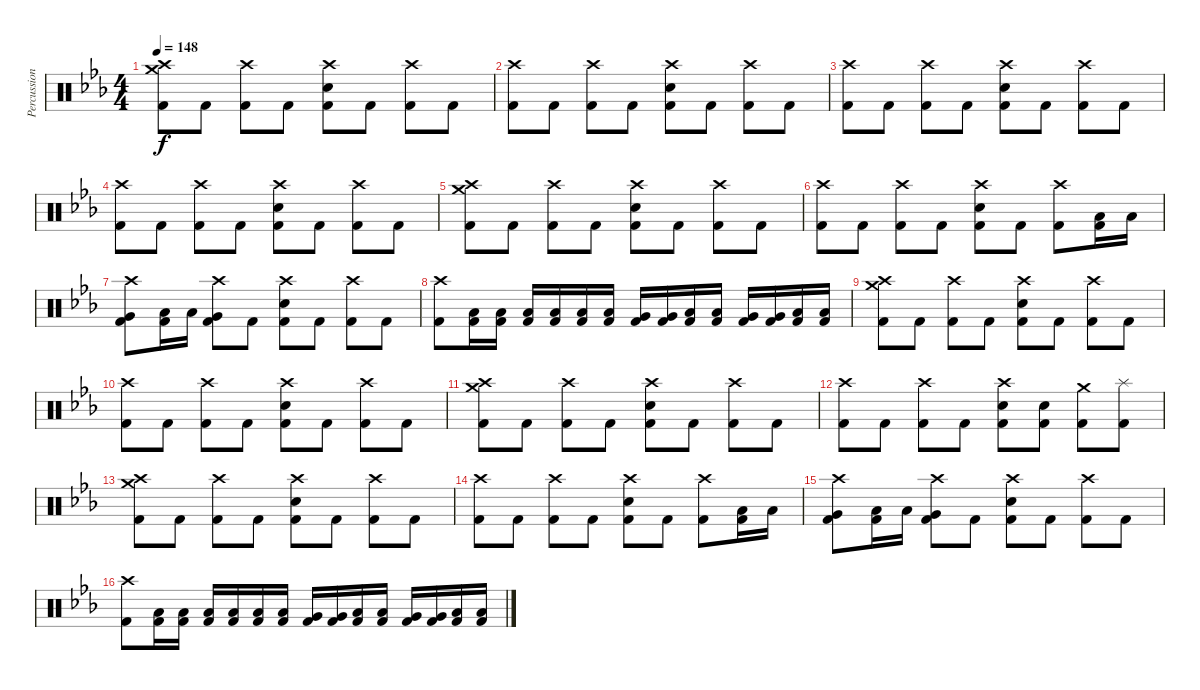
\track ("Percussion" "Percussion") {instrument percussion}
\staff {score}
\articulation defaults
\ts (4 4)
\tempo 148
\clef neutral
\ks cminor
("Crash medium (hit)" "Crash high (hit)" "Kick (hit) 2").8{dy f} "Kick (hit) 2".8 ("Crash high (hit)" "Kick (hit) 2").8 "Kick (hit) 2".8 ("Crash high (hit)" "Electric Snare (hit)" "Kick (hit) 2").8 "Kick (hit) 2".8 ("Crash high (hit)" "Kick (hit) 2").8 "Kick (hit) 2".8 |
("Crash high (hit)" "Kick (hit) 2").8 "Kick (hit) 2".8 ("Crash high (hit)" "Kick (hit) 2").8 "Kick (hit) 2".8 ("Crash high (hit)" "Electric Snare (hit)" "Kick (hit) 2").8 "Kick (hit) 2".8 ("Crash high (hit)" "Kick (hit) 2").8 "Kick (hit) 2".8 |
("Crash high (hit)" "Kick (hit) 2").8 "Kick (hit) 2".8 ("Crash high (hit)" "Kick (hit) 2").8 "Kick (hit) 2".8 ("Crash high (hit)" "Electric Snare (hit)" "Kick (hit) 2").8 "Kick (hit) 2".8 ("Crash high (hit)" "Kick (hit) 2").8 "Kick (hit) 2".8 |
("Crash high (hit)" "Kick (hit) 2").8 "Kick (hit) 2".8 ("Crash high (hit)" "Kick (hit) 2").8 "Kick (hit) 2".8 ("Crash high (hit)" "Electric Snare (hit)" "Kick (hit) 2").8 "Kick (hit) 2".8 ("Crash high (hit)" "Kick (hit) 2").8 "Kick (hit) 2".8 |
("Crash medium (hit)" "Crash high (hit)" "Kick (hit) 2").8 "Kick (hit) 2".8 ("Crash high (hit)" "Kick (hit) 2").8 "Kick (hit) 2".8 ("Crash high (hit)" "Electric Snare (hit)" "Kick (hit) 2").8 "Kick (hit) 2".8 ("Crash high (hit)" "Kick (hit) 2").8 "Kick (hit) 2".8 |
("Crash high (hit)" "Kick (hit) 2").8 "Kick (hit) 2".8 ("Crash high (hit)" "Kick (hit) 2").8 "Kick (hit) 2".8 ("Crash high (hit)" "Electric Snare (hit)" "Kick (hit) 2").8 "Kick (hit) 2".8 ("Crash high (hit)" "Kick (hit) 2").8 ("Low Tom (hit)" "Kick (hit) 2").16 "Low Tom (hit)".16 |
("Crash high (hit)" "Very Low Tom (hit)" "Kick (hit) 2").8 ("Low Tom (hit)" "Kick (hit) 2").16 "Low Tom (hit)".16 ("Crash high (hit)" "Very Low Tom (hit)" "Kick (hit) 2").8 "Kick (hit) 2".8 ("Crash high (hit)" "Electric Snare (hit)" "Kick (hit) 2").8 "Kick (hit) 2".8 ("Crash high (hit)" "Kick (hit) 2").8 "Kick (hit) 2".8 |
("Crash high (hit)" "Kick (hit) 2").8 ("Low Tom (hit)" "Kick (hit) 2").16 ("Low Tom (hit)" "Kick (hit) 2").16 ("Low Tom (hit)" "Kick (hit) 2").16 ("Low Tom (hit)" "Kick (hit) 2").16 ("Low Tom (hit)" "Kick (hit) 2").16 ("Low Tom (hit)" "Kick (hit) 2").16 ("Very Low Tom (hit)" "Kick (hit) 2").16 ("Very Low Tom (hit)" "Kick (hit) 2").16 ("Low Tom (hit)" "Kick (hit) 2").16 ("Low Tom (hit)" "Kick (hit) 2").16 ("Very Low Tom (hit)" "Kick (hit) 2").16 ("Very Low Tom (hit)" "Kick (hit) 2").16 ("Low Floor Tom (hit)" "Kick (hit) 2").16 ("Low Floor Tom (hit)" "Kick (hit) 2").16 |
("Crash medium (hit)" "Crash high (hit)" "Kick (hit) 2").8 "Kick (hit) 2".8 ("Crash high (hit)" "Kick (hit) 2").8 "Kick (hit) 2".8 ("Crash high (hit)" "Electric Snare (hit)" "Kick (hit) 2").8 "Kick (hit) 2".8 ("Crash high (hit)" "Kick (hit) 2").8 "Kick (hit) 2".8 |
("Crash high (hit)" "Kick (hit) 2").8 "Kick (hit) 2".8 ("Crash high (hit)" "Kick (hit) 2").8 "Kick (hit) 2".8 ("Crash high (hit)" "Electric Snare (hit)" "Kick (hit) 2").8 "Kick (hit) 2".8 ("Crash high (hit)" "Kick (hit) 2").8 "Kick (hit) 2".8 |
("Crash medium (hit)" "Crash high (hit)" "Kick (hit) 2").8 "Kick (hit) 2".8 ("Crash high (hit)" "Kick (hit) 2").8 "Kick (hit) 2".8 ("Crash high (hit)" "Electric Snare (hit)" "Kick (hit) 2").8 "Kick (hit) 2".8 ("Crash high (hit)" "Kick (hit) 2").8 "Kick (hit) 2".8 |
("Crash high (hit)" "Kick (hit) 2").8 "Kick (hit) 2".8 ("Crash high (hit)" "Kick (hit) 2").8 "Kick (hit) 2".8 ("Crash high (hit)" "Electric Snare (hit)" "Kick (hit) 2").8 ("Electric Snare (hit)" "Kick (hit) 2").8 ("Crash medium (hit)" "Kick (hit) 2").8 ("Splash (hit)" "Kick (hit) 2").8 |
("Crash medium (hit)" "Crash high (hit)" "Kick (hit) 2").8 "Kick (hit) 2".8 ("Crash high (hit)" "Kick (hit) 2").8 "Kick (hit) 2".8 ("Crash high (hit)" "Electric Snare (hit)" "Kick (hit) 2").8 "Kick (hit) 2".8 ("Crash high (hit)" "Kick (hit) 2").8 "Kick (hit) 2".8 |
("Crash high (hit)" "Kick (hit) 2").8 "Kick (hit) 2".8 ("Crash high (hit)" "Kick (hit) 2").8 "Kick (hit) 2".8 ("Crash high (hit)" "Electric Snare (hit)" "Kick (hit) 2").8 "Kick (hit) 2".8 ("Crash high (hit)" "Kick (hit) 2").8 ("Low Tom (hit)" "Kick (hit) 2").16 "Low Tom (hit)".16 |
("Crash high (hit)" "Very Low Tom (hit)" "Kick (hit) 2").8 ("Low Tom (hit)" "Kick (hit) 2").16 "Low Tom (hit)".16 ("Crash high (hit)" "Very Low Tom (hit)" "Kick (hit) 2").8 "Kick (hit) 2".8 ("Crash high (hit)" "Electric Snare (hit)" "Kick (hit) 2").8 "Kick (hit) 2".8 ("Crash high (hit)" "Kick (hit) 2").8 "Kick (hit) 2".8 |
("Crash high (hit)" "Kick (hit) 2").8 ("Low Tom (hit)" "Kick (hit) 2").16 ("Low Tom (hit)" "Kick (hit) 2").16 ("Low Tom (hit)" "Kick (hit) 2").16 ("Low Tom (hit)" "Kick (hit) 2").16 ("Low Tom (hit)" "Kick (hit) 2").16 ("Low Tom (hit)" "Kick (hit) 2").16 ("Very Low Tom (hit)" "Kick (hit) 2").16 ("Very Low Tom (hit)" "Kick (hit) 2").16 ("Low Tom (hit)" "Kick (hit) 2").16 ("Low Tom (hit)" "Kick (hit) 2").16 ("Very Low Tom (hit)" "Kick (hit) 2").16 ("Very Low Tom (hit)" "Kick (hit) 2").16 ("Low Floor Tom (hit)" "Kick (hit) 2").16 ("Low Floor Tom (hit)" "Kick (hit) 2").16
